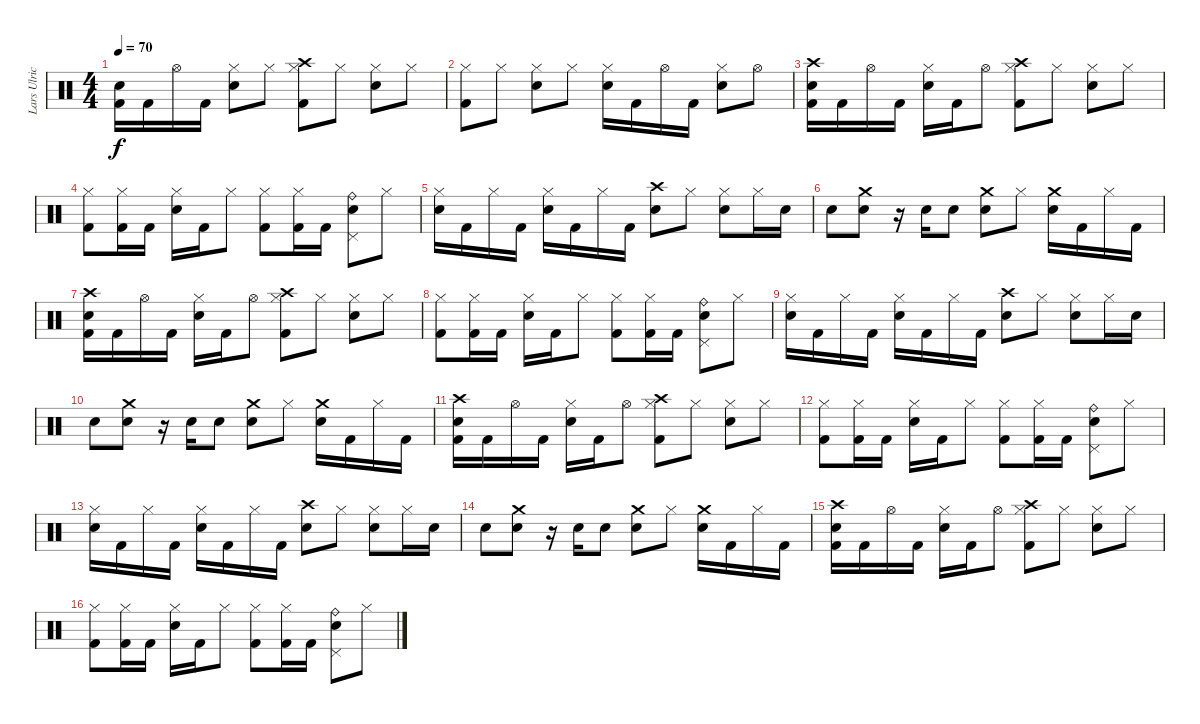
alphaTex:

\track ("Lars Ulrich (Drums)" "Lars Ulric") {instrument percussion}
\staff {score}
\articulation defaults
\ts (4 4)
\tempo 70
\clef neutral
\ks c
("Electric Snare (hit)" "Kick (hit) 2").16{dy f} "Kick (hit) 2".16 "Hi-Hat (open)".16 "Kick (hit) 2".16 ("Electric Snare (hit)" "Hi-Hat (closed)").8 "Hi-Hat (closed)".8 ("Crash high (hit)" "Hi-Hat (closed)" "Kick (hit) 2").8 "Hi-Hat (closed)".8 ("Electric Snare (hit)" "Hi-Hat (closed)").8 "Hi-Hat (closed)".8 |
("Hi-Hat (closed)" "Kick (hit) 2").8 "Hi-Hat (closed)".8 ("Electric Snare (hit)" "Hi-Hat (closed)").8 "Hi-Hat (closed)".8 ("Electric Snare (hit)" "Hi-Hat (closed)").16 "Kick (hit) 2".16 "Hi-Hat (open)".16 "Kick (hit) 2".16 ("Electric Snare (hit)" "Hi-Hat (closed)").8 "Hi-Hat (open)".8 |
("Electric Snare (hit)" "Crash high (hit)" "Kick (hit) 2").16 "Kick (hit) 2".16 "Hi-Hat (open)".16 "Kick (hit) 2".16 ("Electric Snare (hit)" "Hi-Hat (closed)").16 "Kick (hit) 2".16 "Hi-Hat (open)".8 ("Crash high (hit)" "Hi-Hat (closed)" "Kick (hit) 2").8 "Hi-Hat (closed)".8 ("Electric Snare (hit)" "Hi-Hat (closed)").8 "Hi-Hat (closed)".8 |
("Hi-Hat (closed)" "Kick (hit) 2").8 ("Hi-Hat (closed)" "Kick (hit) 2").16 "Kick (hit) 2".16 ("Electric Snare (hit)" "Hi-Hat (closed)").16 "Kick (hit) 2".16 "Hi-Hat (closed)".8 ("Hi-Hat (closed)" "Kick (hit) 2").8 ("Hi-Hat (closed)" "Kick (hit) 2").16 "Kick (hit) 2".16 ("Electric Snare (hit)" "Pedal Hi-Hat (hit)" "Ride (bell)").8 "Hi-Hat (closed)".8 |
("Electric Snare (hit)" "Hi-Hat (closed)").16 "Kick (hit) 2".16 "Hi-Hat (closed)".16 "Kick (hit) 2".16 ("Electric Snare (hit)" "Hi-Hat (closed)").16 "Kick (hit) 2".16 "Hi-Hat (closed)".16 "Kick (hit) 2".16 ("Electric Snare (hit)" "Crash high (hit)").8 "Hi-Hat (closed)".8 ("Electric Snare (hit)" "Hi-Hat (closed)").8 "Hi-Hat (closed)".16 "Electric Snare (hit)".16 |
"Electric Snare (hit)".8 ("Electric Snare (hit)" "Crash medium (hit)").8 r.16 "Electric Snare (hit)".16 "Electric Snare (hit)".8 ("Electric Snare (hit)" "Crash medium (hit)").8 "Hi-Hat (closed)".8 ("Electric Snare (hit)" "Crash medium (hit)").16 "Kick (hit) 2".16 "Hi-Hat (closed)".16 "Kick (hit) 2".16 |
("Electric Snare (hit)" "Crash high (hit)" "Kick (hit) 2").16 "Kick (hit) 2".16 "Hi-Hat (open)".16 "Kick (hit) 2".16 ("Electric Snare (hit)" "Hi-Hat (closed)").16 "Kick (hit) 2".16 "Hi-Hat (open)".8 ("Crash high (hit)" "Hi-Hat (closed)" "Kick (hit) 2").8 "Hi-Hat (closed)".8 ("Electric Snare (hit)" "Hi-Hat (closed)").8 "Hi-Hat (closed)".8 |
("Hi-Hat (closed)" "Kick (hit) 2").8 ("Hi-Hat (closed)" "Kick (hit) 2").16 "Kick (hit) 2".16 ("Electric Snare (hit)" "Hi-Hat (closed)").16 "Kick (hit) 2".16 "Hi-Hat (closed)".8 ("Hi-Hat (closed)" "Kick (hit) 2").8 ("Hi-Hat (closed)" "Kick (hit) 2").16 "Kick (hit) 2".16 ("Electric Snare (hit)" "Pedal Hi-Hat (hit)" "Ride (bell)").8 "Hi-Hat (closed)".8 |
("Electric Snare (hit)" "Hi-Hat (closed)").16 "Kick (hit) 2".16 "Hi-Hat (closed)".16 "Kick (hit) 2".16 ("Electric Snare (hit)" "Hi-Hat (closed)").16 "Kick (hit) 2".16 "Hi-Hat (closed)".16 "Kick (hit) 2".16 ("Electric Snare (hit)" "Crash high (hit)").8 "Hi-Hat (closed)".8 ("Electric Snare (hit)" "Hi-Hat (closed)").8 "Hi-Hat (closed)".16 "Electric Snare (hit)".16 |
"Electric Snare (hit)".8 ("Electric Snare (hit)" "Crash medium (hit)").8 r.16 "Electric Snare (hit)".16 "Electric Snare (hit)".8 ("Electric Snare (hit)" "Crash medium (hit)").8 "Hi-Hat (closed)".8 ("Electric Snare (hit)" "Crash medium (hit)").16 "Kick (hit) 2".16 "Hi-Hat (closed)".16 "Kick (hit) 2".16 |
("Electric Snare (hit)" "Crash high (hit)" "Kick (hit) 2").16 "Kick (hit) 2".16 "Hi-Hat (open)".16 "Kick (hit) 2".16 ("Electric Snare (hit)" "Hi-Hat (closed)").16 "Kick (hit) 2".16 "Hi-Hat (open)".8 ("Crash high (hit)" "Hi-Hat (closed)" "Kick (hit) 2").8 "Hi-Hat (closed)".8 ("Electric Snare (hit)" "Hi-Hat (closed)").8 "Hi-Hat (closed)".8 |
("Hi-Hat (closed)" "Kick (hit) 2").8 ("Hi-Hat (closed)" "Kick (hit) 2").16 "Kick (hit) 2".16 ("Electric Snare (hit)" "Hi-Hat (closed)").16 "Kick (hit) 2".16 "Hi-Hat (closed)".8 ("Hi-Hat (closed)" "Kick (hit) 2").8 ("Hi-Hat (closed)" "Kick (hit) 2").16 "Kick (hit) 2".16 ("Electric Snare (hit)" "Pedal Hi-Hat (hit)" "Ride (bell)").8 "Hi-Hat (closed)".8 |
("Electric Snare (hit)" "Hi-Hat (closed)").16 "Kick (hit) 2".16 "Hi-Hat (closed)".16 "Kick (hit) 2".16 ("Electric Snare (hit)" "Hi-Hat (closed)").16 "Kick (hit) 2".16 "Hi-Hat (closed)".16 "Kick (hit) 2".16 ("Electric Snare (hit)" "Crash high (hit)").8 "Hi-Hat (closed)".8 ("Electric Snare (hit)" "Hi-Hat (closed)").8 "Hi-Hat (closed)".16 "Electric Snare (hit)".16 |
"Electric Snare (hit)".8 ("Electric Snare (hit)" "Crash medium (hit)").8 r.16 "Electric Snare (hit)".16 "Electric Snare (hit)".8 ("Electric Snare (hit)" "Crash medium (hit)").8 "Hi-Hat (closed)".8 ("Electric Snare (hit)" "Crash medium (hit)").16 "Kick (hit) 2".16 "Hi-Hat (closed)".16 "Kick (hit) 2".16 |
("Electric Snare (hit)" "Crash high (hit)" "Kick (hit) 2").16 "Kick (hit) 2".16 "Hi-Hat (open)".16 "Kick (hit) 2".16 ("Electric Snare (hit)" "Hi-Hat (closed)").16 "Kick (hit) 2".16 "Hi-Hat (open)".8 ("Crash high (hit)" "Hi-Hat (closed)" "Kick (hit) 2").8 "Hi-Hat (closed)".8 ("Electric Snare (hit)" "Hi-Hat (closed)").8 "Hi-Hat (closed)".8 |
("Hi-Hat (closed)" "Kick (hit) 2").8 ("Hi-Hat (closed)" "Kick (hit) 2").16 "Kick (hit) 2".16 ("Electric Snare (hit)" "Hi-Hat (closed)").16 "Kick (hit) 2".16 "Hi-Hat (closed)".8 ("Hi-Hat (closed)" "Kick (hit) 2").8 ("Hi-Hat (closed)" "Kick (hit) 2").16 "Kick (hit) 2".16 ("Electric Snare (hit)" "Pedal Hi-Hat (hit)" "Ride (bell)").8 "Hi-Hat (closed)".8
